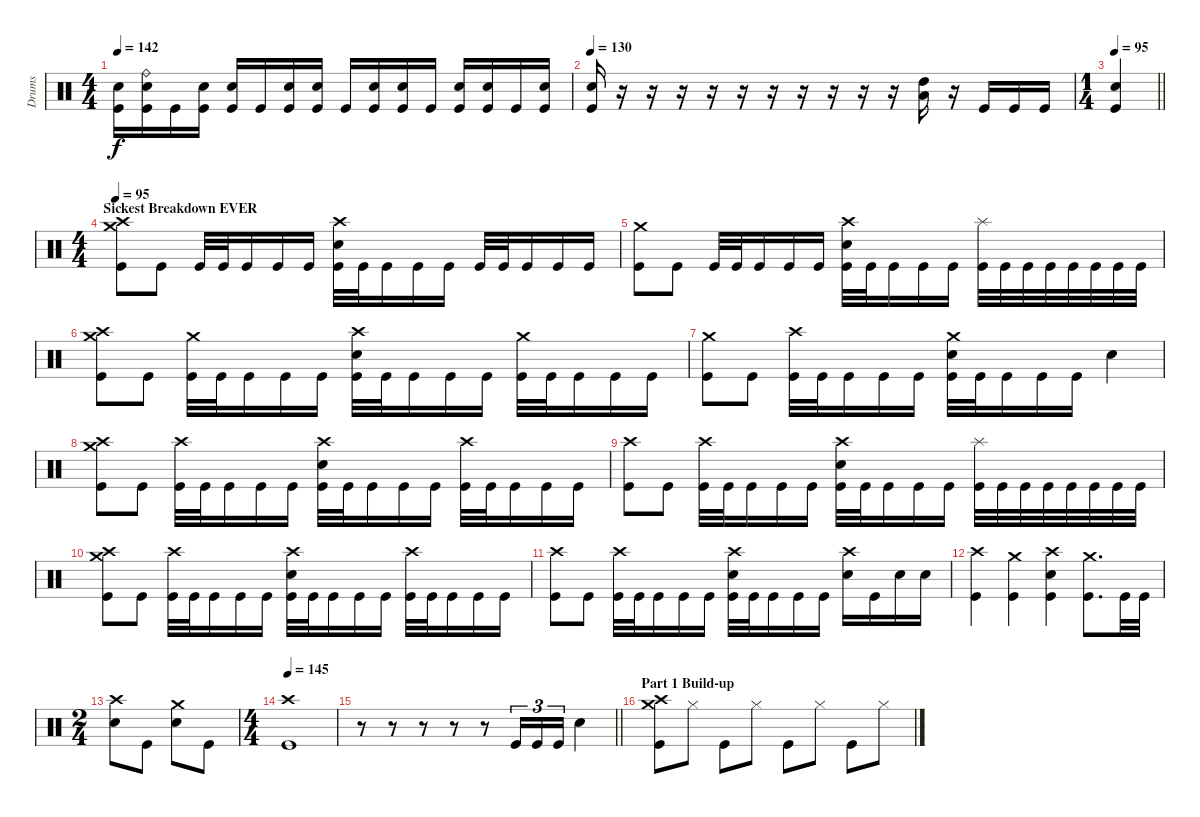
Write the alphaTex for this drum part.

\track ("Drums" "Drums") {instrument percussion}
\staff {score}
\articulation defaults
\ts (4 4)
\tempo 142
\clef neutral
\ks c
("Snare (hit) 2" "Kick (hit)").16{dy f} ("Ride (bell)" "Snare (hit) 2" "Kick (hit)").16 "Kick (hit)".16 ("Snare (hit) 2" "Kick (hit)").16 ("Snare (hit) 2" "Kick (hit)").16 "Kick (hit)".16 ("Snare (hit) 2" "Kick (hit)").16 ("Snare (hit) 2" "Kick (hit)").16 "Kick (hit)".16 ("Snare (hit) 2" "Kick (hit)").16 ("Snare (hit) 2" "Kick (hit)").16 "Kick (hit)".16 ("Snare (hit) 2" "Kick (hit)").16 ("Snare (hit) 2" "Kick (hit)").16 "Kick (hit)".16 ("Snare (hit) 2" "Kick (hit)").16 |
\tempo 130
("Snare (hit) 2" "Kick (hit)").16 r.16 r.16 r.16 r.16 r.16 r.16 r.16 r.16 r.16 r.16 ("High Tom (hit)" "Low Tom (hit)").16 r.16 "Kick (hit)".16 "Kick (hit)".16 "Kick (hit)".16 |
\ts (1 4)
\tempo 95
\barLineRight lightlight
("Snare (hit) 2" "Kick (hit)").4 |
\ts (4 4)
\section ("" "Sickest Breakdown EVER")
\tempo 95
("Crash high (hit)" "Crash medium (hit)" "Kick (hit)").8 "Kick (hit)".8 "Kick (hit)".32 "Kick (hit)".32 "Kick (hit)".16 "Kick (hit)".16 "Kick (hit)".16 ("Crash high (hit)" "Snare (hit) 2" "Kick (hit)").32 "Kick (hit)".32 "Kick (hit)".16 "Kick (hit)".16 "Kick (hit)".16 "Kick (hit)".32 "Kick (hit)".32 "Kick (hit)".16 "Kick (hit)".16 "Kick (hit)".16 |
("Crash medium (hit)" "Kick (hit)").8 "Kick (hit)".8 "Kick (hit)".32 "Kick (hit)".32 "Kick (hit)".16 "Kick (hit)".16 "Kick (hit)".16 ("Crash high (hit)" "Snare (hit) 2" "Kick (hit)").32 "Kick (hit)".32 "Kick (hit)".16 "Kick (hit)".16 "Kick (hit)".16 ("Splash (hit)" "Kick (hit)").32 "Kick (hit)".32 "Kick (hit)".32 "Kick (hit)".32 "Kick (hit)".32 "Kick (hit)".32 "Kick (hit)".32 "Kick (hit)".32 |
("Crash high (hit)" "Crash medium (hit)" "Kick (hit)").8 "Kick (hit)".8 ("Crash medium (hit)" "Kick (hit)").32 "Kick (hit)".32 "Kick (hit)".16 "Kick (hit)".16 "Kick (hit)".16 ("Crash high (hit)" "Snare (hit) 2" "Kick (hit)").32 "Kick (hit)".32 "Kick (hit)".16 "Kick (hit)".16 "Kick (hit)".16 ("Crash medium (hit)" "Kick (hit)").32 "Kick (hit)".32 "Kick (hit)".16 "Kick (hit)".16 "Kick (hit)".16 |
("Crash medium (hit)" "Kick (hit)").8 "Kick (hit)".8 ("Crash high (hit)" "Kick (hit)").32 "Kick (hit)".32 "Kick (hit)".16 "Kick (hit)".16 "Kick (hit)".16 ("Crash medium (hit)" "Snare (hit) 2" "Kick (hit)").32 "Kick (hit)".32 "Kick (hit)".16 "Kick (hit)".16 "Kick (hit)".16 "Snare (hit) 2".4 |
("Crash high (hit)" "Crash medium (hit)" "Kick (hit)").8 "Kick (hit)".8 ("Crash high (hit)" "Kick (hit)").32 "Kick (hit)".32 "Kick (hit)".16 "Kick (hit)".16 "Kick (hit)".16 ("Crash high (hit)" "Snare (hit) 2" "Kick (hit)").32 "Kick (hit)".32 "Kick (hit)".16 "Kick (hit)".16 "Kick (hit)".16 ("Crash high (hit)" "Kick (hit)").32 "Kick (hit)".32 "Kick (hit)".16 "Kick (hit)".16 "Kick (hit)".16 |
("Crash high (hit)" "Kick (hit)").8 "Kick (hit)".8 ("Crash high (hit)" "Kick (hit)").32 "Kick (hit)".32 "Kick (hit)".16 "Kick (hit)".16 "Kick (hit)".16 ("Crash high (hit)" "Snare (hit) 2" "Kick (hit)").32 "Kick (hit)".32 "Kick (hit)".16 "Kick (hit)".16 "Kick (hit)".16 ("Splash (hit)" "Kick (hit)").32 "Kick (hit)".32 "Kick (hit)".32 "Kick (hit)".32 "Kick (hit)".32 "Kick (hit)".32 "Kick (hit)".32 "Kick (hit)".32 |
("Crash high (hit)" "Crash medium (hit)" "Kick (hit)").8 "Kick (hit)".8 ("Crash high (hit)" "Kick (hit)").32 "Kick (hit)".32 "Kick (hit)".16 "Kick (hit)".16 "Kick (hit)".16 ("Crash high (hit)" "Snare (hit) 2" "Kick (hit)").32 "Kick (hit)".32 "Kick (hit)".16 "Kick (hit)".16 "Kick (hit)".16 ("Crash high (hit)" "Kick (hit)").32 "Kick (hit)".32 "Kick (hit)".16 "Kick (hit)".16 "Kick (hit)".16 |
("Crash high (hit)" "Kick (hit)").8 "Kick (hit)".8 ("Crash high (hit)" "Kick (hit)").32 "Kick (hit)".32 "Kick (hit)".16 "Kick (hit)".16 "Kick (hit)".16 ("Crash high (hit)" "Snare (hit) 2" "Kick (hit)").32 "Kick (hit)".32 "Kick (hit)".16 "Kick (hit)".16 "Kick (hit)".16 ("Crash high (hit)" "Snare (hit) 2").16 "Kick (hit)".16 "Snare (hit) 2".16 "Snare (hit) 2".16 |
("Crash high (hit)" "Kick (hit)").4 ("Crash medium (hit)" "Kick (hit)").4 ("Crash high (hit)" "Snare (hit) 2" "Kick (hit)").4 ("Crash medium (hit)" "Kick (hit)").8{d} "Kick (hit)".32 "Kick (hit)".32 |
\ts (2 4)
("Crash high (hit)" "Snare (hit) 2").8 "Kick (hit)".8 ("Crash medium (hit)" "Snare (hit) 2").8 "Kick (hit)".8 |
\ts (4 4)
\tempo 142
\tempo 145
("Crash high (hit)" "Kick (hit)").1 |
\barLineRight lightlight
r.8 r.8 r.8 r.8 r.8 "Kick (hit)".16{tu (3 2)} "Kick (hit)".16{tu (3 2)} "Kick (hit)".16{tu (3 2)} "Snare (hit) 2".4 |
\section ("" "Part 1 Build-up")
("Crash high (hit)" "Crash medium (hit)" "Kick (hit)").8 "Hi-Hat (closed)".8 "Kick (hit)".8 "Hi-Hat (closed)".8 "Kick (hit)".8 "Hi-Hat (closed)".8 "Kick (hit)".8 "Hi-Hat (closed)".8
